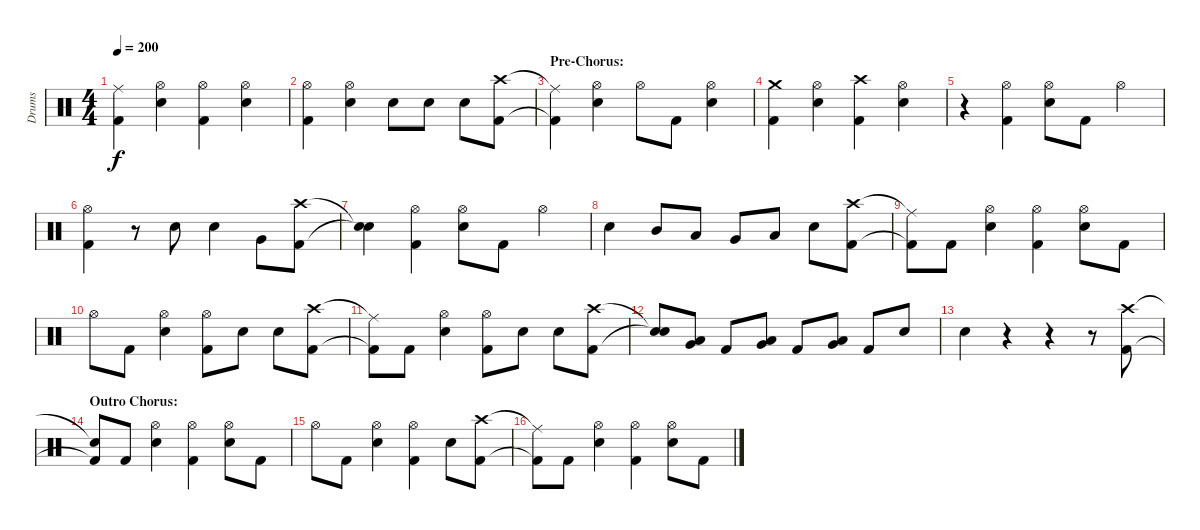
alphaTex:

\track ("Drums" "Drums") {instrument percussion}
\staff {score}
\articulation defaults
\ts (4 4)
\tempo 200
\clef neutral
\ks c
("Ride (middle)"{t} "Kick (hit) 2"{t}).4{dy f} ("Hi-Hat (open)" "Electric Snare (hit)").4 ("Hi-Hat (open)" "Kick (hit) 2").4 ("Hi-Hat (open)" "Electric Snare (hit)").4 |
("Hi-Hat (open)" "Kick (hit) 2").4 ("Hi-Hat (open)" "Electric Snare (hit)").4 "Electric Snare (hit)".8 "Electric Snare (hit)".8 "Electric Snare (hit)".8 ("Crash high (hit)" "Kick (hit) 2").8 |
\section ("" "Pre-Chorus:")
("Ride (middle)"{t} "Kick (hit) 2"{t}).4 ("Hi-Hat (open)" "Electric Snare (hit)").4 "Hi-Hat (open)".8 "Kick (hit) 2".8 ("Hi-Hat (open)" "Electric Snare (hit)").4 |
("Crash medium (hit)" "Kick (hit) 2").4 ("Hi-Hat (open)" "Electric Snare (hit)").4 ("Crash high (hit)" "Kick (hit) 2").4 ("Hi-Hat (open)" "Electric Snare (hit)").4 |
r.4 ("Hi-Hat (open)" "Kick (hit) 2").4 ("Hi-Hat (open)" "Electric Snare (hit)").8 "Kick (hit) 2".8 "Hi-Hat (open)".4 |
("Hi-Hat (open)" "Kick (hit) 2").4 r.8 "Electric Snare (hit)".8 "Electric Snare (hit)".4 "Very Low Tom (hit)".8 ("Crash high (hit)" "Kick (hit) 2").8 |
("Snare (hit)"{t} "Snare (hit)"{t}).4 ("Hi-Hat (open)" "Kick (hit) 2").4 ("Hi-Hat (open)" "Electric Snare (hit)").8 "Kick (hit) 2".8 "Hi-Hat (open)".4 |
"Electric Snare (hit)".4 "Mid Tom (hit)".8 "Low Tom (hit)".8 "Very Low Tom (hit)".8 "Low Floor Tom (hit)".8 "Electric Snare (hit)".8 ("Crash high (hit)" "Kick (hit) 2").8 |
("Ride (middle)"{t} "Kick (hit) 2"{t}).8 "Kick (hit) 2".8 ("Hi-Hat (open)" "Electric Snare (hit)").4 ("Hi-Hat (open)" "Kick (hit) 2").4 ("Hi-Hat (open)" "Electric Snare (hit)").8 "Kick (hit) 2".8 |
"Hi-Hat (open)".8 "Kick (hit) 2".8 ("Hi-Hat (open)" "Electric Snare (hit)").4 ("Hi-Hat (open)" "Kick (hit) 2").8 "Electric Snare (hit)".8 "Electric Snare (hit)".8 ("Crash high (hit)" "Kick (hit) 2").8 |
("Ride (middle)"{t} "Kick (hit) 2"{t}).8 "Kick (hit) 2".8 ("Hi-Hat (open)" "Electric Snare (hit)").4 ("Hi-Hat (open)" "Kick (hit) 2").8 "Electric Snare (hit)".8 "Electric Snare (hit)".8 ("Crash high (hit)" "Kick (hit) 2").8 |
("Snare (hit)"{t} "Snare (hit)"{t}).8 ("Very Low Tom (hit)" "Low Tom (hit)").8 "Kick (hit) 2".8 ("Very Low Tom (hit)" "Low Tom (hit)").8 "Kick (hit) 2".8 ("Very Low Tom (hit)" "Low Tom (hit)").8 "Kick (hit) 2".8 "Electric Snare (hit)".8 |
"Electric Snare (hit)".4 r.4 r.4 r.8 ("Crash high (hit)" "Kick (hit) 2").8 |
\section ("" "Outro Chorus:")
("Snare (hit)"{t} "Kick (hit) 2"{t}).8 "Kick (hit) 2".8 ("Hi-Hat (open)" "Electric Snare (hit)").4 ("Hi-Hat (open)" "Kick (hit) 2").4 ("Hi-Hat (open)" "Electric Snare (hit)").8 "Kick (hit) 2".8 |
"Hi-Hat (open)".8 "Kick (hit) 2".8 ("Hi-Hat (open)" "Electric Snare (hit)").4 ("Hi-Hat (open)" "Kick (hit) 2").4 "Electric Snare (hit)".8 ("Crash high (hit)" "Kick (hit) 2").8 |
("Ride (middle)"{t} "Kick (hit) 2"{t}).8 "Kick (hit) 2".8 ("Hi-Hat (open)" "Electric Snare (hit)").4 ("Hi-Hat (open)" "Kick (hit) 2").4 ("Hi-Hat (open)" "Electric Snare (hit)").8 "Kick (hit) 2".8
